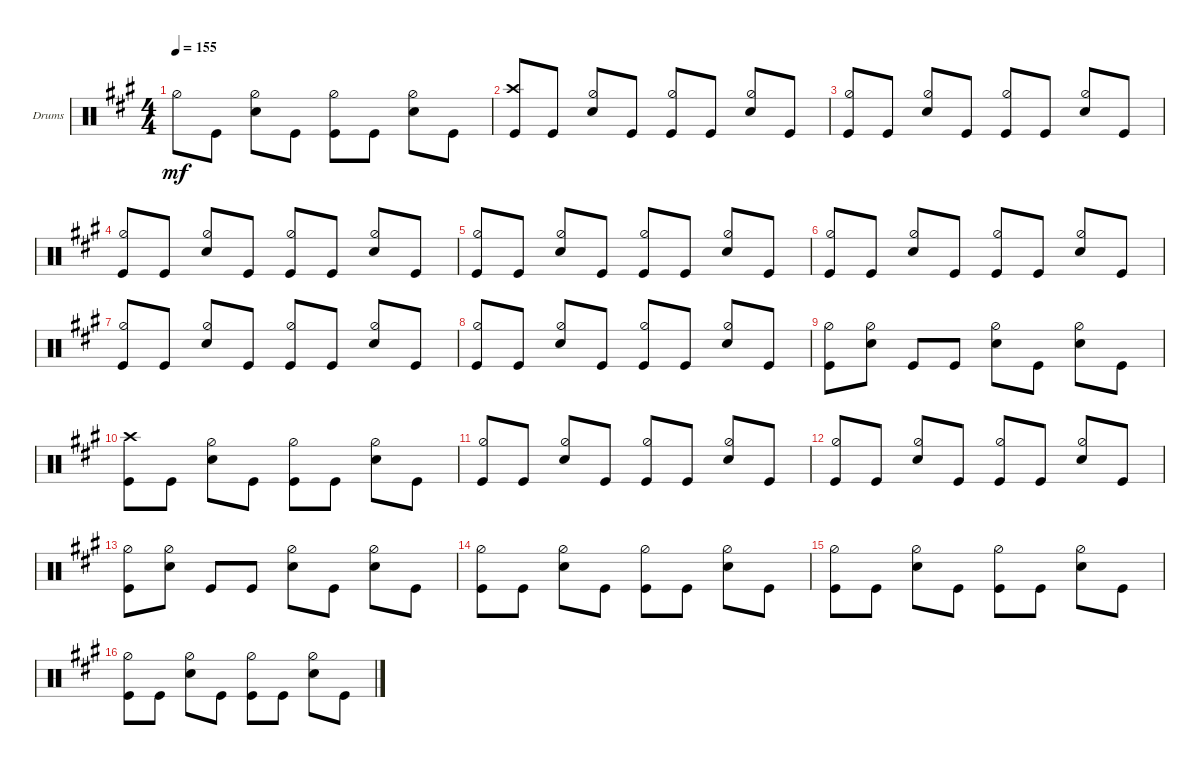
\defaultSystemsLayout 4
\bracketExtendMode groupsimilarinstruments
\firstSystemTrackNameOrientation horizontal
\otherSystemsTrackNameOrientation horizontal
\track ("John Bonham" "Drums") {instrument percussion}
\staff {score}
\articulation defaults
\ts (4 4)
\tempo 155
\clef neutral
\ks a "Hi-Hat (half)".8{dy mf} "Kick (hit)".8
("Hi-Hat (half)" "Snare (hit) 2").8 "Kick (hit)".8 ("Hi-Hat (half)" "Kick (hit)").8 "Kick (hit)".8 ("Hi-Hat (half)" "Snare (hit) 2").8 "Kick (hit)".8 |
("Kick (hit)" "Crash high (hit)").8{beam invert} "Kick (hit)".8 ("Hi-Hat (half)" "Snare (hit) 2").8 "Kick (hit)".8{beam invert} ("Kick (hit)" "Hi-Hat (half)").8{beam invert} "Kick (hit)".8 ("Hi-Hat (half)" "Snare (hit) 2").8 "Kick (hit)".8{beam invert} |
("Kick (hit)" "Hi-Hat (half)").8{beam invert} "Kick (hit)".8 ("Hi-Hat (half)" "Snare (hit) 2").8 "Kick (hit)".8{beam invert} ("Kick (hit)" "Hi-Hat (half)").8{beam invert} "Kick (hit)".8 ("Hi-Hat (half)" "Snare (hit) 2").8 "Kick (hit)".8{beam invert} |
("Kick (hit)" "Hi-Hat (half)").8{beam invert} "Kick (hit)".8 ("Hi-Hat (half)" "Snare (hit) 2").8 "Kick (hit)".8{beam invert} ("Kick (hit)" "Hi-Hat (half)").8{beam invert} "Kick (hit)".8 ("Hi-Hat (half)" "Snare (hit) 2").8 "Kick (hit)".8{beam invert} |
("Kick (hit)" "Hi-Hat (half)").8{beam invert} "Kick (hit)".8 ("Hi-Hat (half)" "Snare (hit) 2").8 "Kick (hit)".8{beam invert} ("Kick (hit)" "Hi-Hat (half)").8{beam invert} "Kick (hit)".8 ("Hi-Hat (half)" "Snare (hit) 2").8 "Kick (hit)".8{beam invert} |
("Kick (hit)" "Hi-Hat (half)").8{beam invert} "Kick (hit)".8 ("Hi-Hat (half)" "Snare (hit) 2").8 "Kick (hit)".8{beam invert} ("Kick (hit)" "Hi-Hat (half)").8{beam invert} "Kick (hit)".8 ("Hi-Hat (half)" "Snare (hit) 2").8 "Kick (hit)".8{beam invert} |
("Kick (hit)" "Hi-Hat (half)").8{beam invert} "Kick (hit)".8 ("Hi-Hat (half)" "Snare (hit) 2").8 "Kick (hit)".8{beam invert} ("Kick (hit)" "Hi-Hat (half)").8{beam invert} "Kick (hit)".8 ("Hi-Hat (half)" "Snare (hit) 2").8 "Kick (hit)".8{beam invert} |
("Kick (hit)" "Hi-Hat (half)").8{beam invert} "Kick (hit)".8 ("Hi-Hat (half)" "Snare (hit) 2").8 "Kick (hit)".8{beam invert} ("Kick (hit)" "Hi-Hat (half)").8{beam invert} "Kick (hit)".8 ("Hi-Hat (half)" "Snare (hit) 2").8 "Kick (hit)".8{beam invert} |
("Kick (hit)" "Hi-Hat (half)").8 ("Hi-Hat (half)" "Snare (hit) 2").8 "Kick (hit)".8 "Kick (hit)".8 ("Hi-Hat (half)" "Snare (hit) 2").8 "Kick (hit)".8 ("Hi-Hat (half)" "Snare (hit) 2").8 "Kick (hit)".8 |
("Kick (hit)" "Crash high (hit)").8 "Kick (hit)".8 ("Hi-Hat (half)" "Snare (hit) 2").8 "Kick (hit)".8 ("Kick (hit)" "Hi-Hat (half)").8 "Kick (hit)".8 ("Hi-Hat (half)" "Snare (hit) 2").8 "Kick (hit)".8 |
("Kick (hit)" "Hi-Hat (half)").8{beam invert} "Kick (hit)".8 ("Hi-Hat (half)" "Snare (hit) 2").8 "Kick (hit)".8{beam invert} ("Kick (hit)" "Hi-Hat (half)").8{beam invert} "Kick (hit)".8 ("Hi-Hat (half)" "Snare (hit) 2").8 "Kick (hit)".8{beam invert} |
("Kick (hit)" "Hi-Hat (half)").8{beam invert} "Kick (hit)".8 ("Hi-Hat (half)" "Snare (hit) 2").8 "Kick (hit)".8{beam invert} ("Kick (hit)" "Hi-Hat (half)").8{beam invert} "Kick (hit)".8 ("Hi-Hat (half)" "Snare (hit) 2").8 "Kick (hit)".8{beam invert} |
("Hi-Hat (half)" "Kick (hit)").8 ("Hi-Hat (half)" "Snare (hit) 2").8 "Kick (hit)".8 "Kick (hit)".8 ("Snare (hit) 2" "Hi-Hat (half)").8 "Kick (hit)".8 ("Snare (hit) 2" "Hi-Hat (half)").8 "Kick (hit)".8 |
("Hi-Hat (half)" "Kick (hit)").8 "Kick (hit)".8 ("Hi-Hat (half)" "Snare (hit) 2").8 "Kick (hit)".8 ("Hi-Hat (half)" "Kick (hit)").8 "Kick (hit)".8 ("Hi-Hat (half)" "Snare (hit) 2").8 "Kick (hit)".8 |
("Hi-Hat (half)" "Kick (hit)").8 "Kick (hit)".8 ("Hi-Hat (half)" "Snare (hit) 2").8 "Kick (hit)".8 ("Hi-Hat (half)" "Kick (hit)").8 "Kick (hit)".8 ("Hi-Hat (half)" "Snare (hit) 2").8 "Kick (hit)".8 |
("Hi-Hat (half)" "Kick (hit)").8 "Kick (hit)".8 ("Hi-Hat (half)" "Snare (hit) 2").8 "Kick (hit)".8 ("Hi-Hat (half)" "Kick (hit)").8 "Kick (hit)".8 ("Hi-Hat (half)" "Snare (hit) 2").8 "Kick (hit)".8
